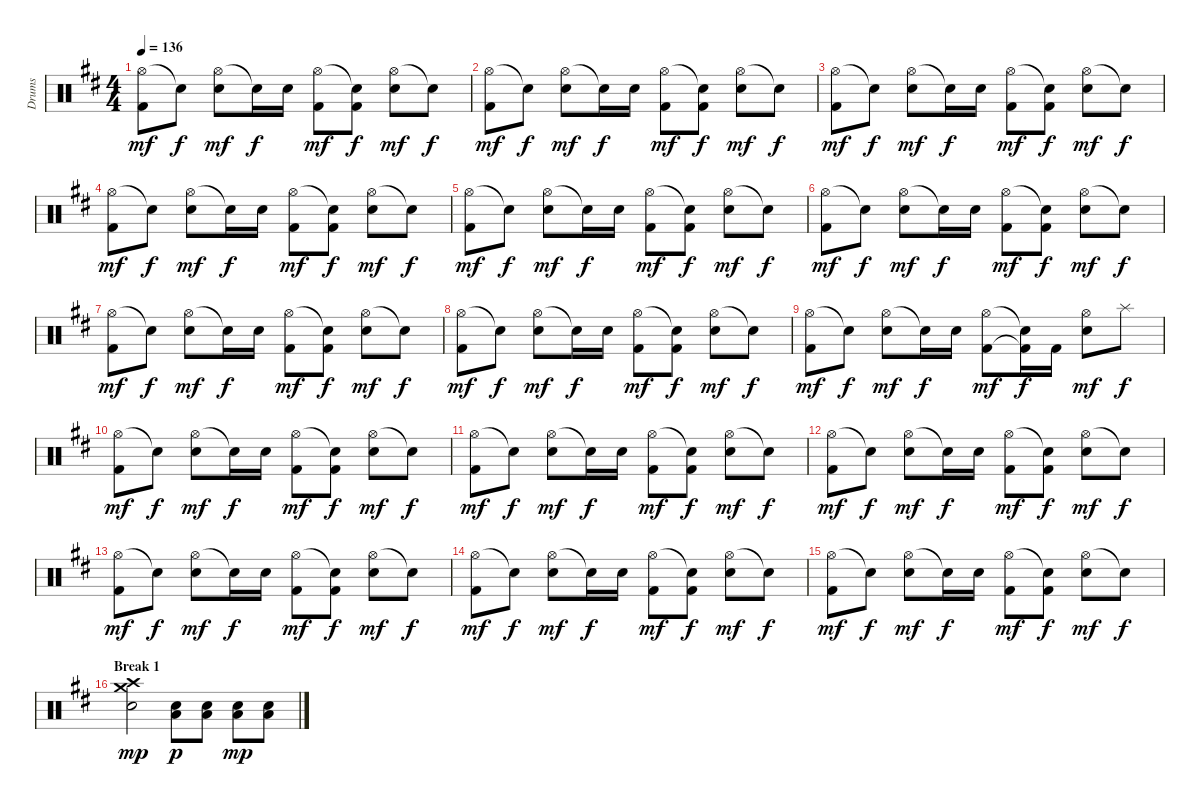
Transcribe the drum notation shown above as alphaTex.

\track ("Drums" "Drums") {instrument percussion}
\staff {score}
\articulation defaults
\ts (4 4)
\tempo 136
\clef neutral
\ks d
("Hi-Hat (open)" "Kick (hit) 2").8{dy mf} "Snare (hit)"{t}.8{dy f} ("Hi-Hat (open)" "Electric Snare (hit)").8{dy mf} "Snare (hit)"{t}.16{dy f} "Electric Snare (hit)".16 ("Hi-Hat (open)" "Kick (hit) 2").8{dy mf} ("Snare (hit)"{t} "Kick (hit) 2").8{dy f} ("Hi-Hat (open)" "Electric Snare (hit)").8{dy mf} "Snare (hit)"{t}.8{dy f} |
("Hi-Hat (open)" "Kick (hit) 2").8{dy mf} "Snare (hit)"{t}.8{dy f} ("Hi-Hat (open)" "Electric Snare (hit)").8{dy mf} "Snare (hit)"{t}.16{dy f} "Electric Snare (hit)".16 ("Hi-Hat (open)" "Kick (hit) 2").8{dy mf} ("Snare (hit)"{t} "Kick (hit) 2").8{dy f} ("Hi-Hat (open)" "Electric Snare (hit)").8{dy mf} "Snare (hit)"{t}.8{dy f} |
("Hi-Hat (open)" "Kick (hit) 2").8{dy mf} "Snare (hit)"{t}.8{dy f} ("Hi-Hat (open)" "Electric Snare (hit)").8{dy mf} "Snare (hit)"{t}.16{dy f} "Electric Snare (hit)".16 ("Hi-Hat (open)" "Kick (hit) 2").8{dy mf} ("Snare (hit)"{t} "Kick (hit) 2").8{dy f} ("Hi-Hat (open)" "Electric Snare (hit)").8{dy mf} "Snare (hit)"{t}.8{dy f} |
("Hi-Hat (open)" "Kick (hit) 2").8{dy mf} "Snare (hit)"{t}.8{dy f} ("Hi-Hat (open)" "Electric Snare (hit)").8{dy mf} "Snare (hit)"{t}.16{dy f} "Electric Snare (hit)".16 ("Hi-Hat (open)" "Kick (hit) 2").8{dy mf} ("Snare (hit)"{t} "Kick (hit) 2").8{dy f} ("Hi-Hat (open)" "Electric Snare (hit)").8{dy mf} "Snare (hit)"{t}.8{dy f} |
("Hi-Hat (open)" "Kick (hit) 2").8{dy mf} "Snare (hit)"{t}.8{dy f} ("Hi-Hat (open)" "Electric Snare (hit)").8{dy mf} "Snare (hit)"{t}.16{dy f} "Electric Snare (hit)".16 ("Hi-Hat (open)" "Kick (hit) 2").8{dy mf} ("Snare (hit)"{t} "Kick (hit) 2").8{dy f} ("Hi-Hat (open)" "Electric Snare (hit)").8{dy mf} "Snare (hit)"{t}.8{dy f} |
("Hi-Hat (open)" "Kick (hit) 2").8{dy mf} "Snare (hit)"{t}.8{dy f} ("Hi-Hat (open)" "Electric Snare (hit)").8{dy mf} "Snare (hit)"{t}.16{dy f} "Electric Snare (hit)".16 ("Hi-Hat (open)" "Kick (hit) 2").8{dy mf} ("Snare (hit)"{t} "Kick (hit) 2").8{dy f} ("Hi-Hat (open)" "Electric Snare (hit)").8{dy mf} "Snare (hit)"{t}.8{dy f} |
("Hi-Hat (open)" "Kick (hit) 2").8{dy mf} "Snare (hit)"{t}.8{dy f} ("Hi-Hat (open)" "Electric Snare (hit)").8{dy mf} "Snare (hit)"{t}.16{dy f} "Electric Snare (hit)".16 ("Hi-Hat (open)" "Kick (hit) 2").8{dy mf} ("Snare (hit)"{t} "Kick (hit) 2").8{dy f} ("Hi-Hat (open)" "Electric Snare (hit)").8{dy mf} "Snare (hit)"{t}.8{dy f} |
("Hi-Hat (open)" "Kick (hit) 2").8{dy mf} "Snare (hit)"{t}.8{dy f} ("Hi-Hat (open)" "Electric Snare (hit)").8{dy mf} "Snare (hit)"{t}.16{dy f} "Electric Snare (hit)".16 ("Hi-Hat (open)" "Kick (hit) 2").8{dy mf} ("Snare (hit)"{t} "Kick (hit) 2").8{dy f} ("Hi-Hat (open)" "Electric Snare (hit)").8{dy mf} "Snare (hit)"{t}.8{dy f} |
("Hi-Hat (open)" "Kick (hit) 2").8{dy mf} "Snare (hit)"{t}.8{dy f} ("Hi-Hat (open)" "Electric Snare (hit)").8{dy mf} "Snare (hit)"{t}.16{dy f} "Electric Snare (hit)".16 ("Hi-Hat (open)" "Kick (hit) 2").8{dy mf} ("Snare (hit)"{t} "Kick (hit) 2"{t}).16{dy f} "Kick (hit) 2".16 ("Hi-Hat (open)" "Electric Snare (hit)").8{dy mf} "Splash (hit)".8{dy f} |
("Hi-Hat (open)" "Kick (hit) 2").8{dy mf} "Snare (hit)"{t}.8{dy f} ("Hi-Hat (open)" "Electric Snare (hit)").8{dy mf} "Snare (hit)"{t}.16{dy f} "Electric Snare (hit)".16 ("Hi-Hat (open)" "Kick (hit) 2").8{dy mf} ("Snare (hit)"{t} "Kick (hit) 2").8{dy f} ("Hi-Hat (open)" "Electric Snare (hit)").8{dy mf} "Snare (hit)"{t}.8{dy f} |
("Hi-Hat (open)" "Kick (hit) 2").8{dy mf} "Snare (hit)"{t}.8{dy f} ("Hi-Hat (open)" "Electric Snare (hit)").8{dy mf} "Snare (hit)"{t}.16{dy f} "Electric Snare (hit)".16 ("Hi-Hat (open)" "Kick (hit) 2").8{dy mf} ("Snare (hit)"{t} "Kick (hit) 2").8{dy f} ("Hi-Hat (open)" "Electric Snare (hit)").8{dy mf} "Snare (hit)"{t}.8{dy f} |
("Hi-Hat (open)" "Kick (hit) 2").8{dy mf} "Snare (hit)"{t}.8{dy f} ("Hi-Hat (open)" "Electric Snare (hit)").8{dy mf} "Snare (hit)"{t}.16{dy f} "Electric Snare (hit)".16 ("Hi-Hat (open)" "Kick (hit) 2").8{dy mf} ("Snare (hit)"{t} "Kick (hit) 2").8{dy f} ("Hi-Hat (open)" "Electric Snare (hit)").8{dy mf} "Snare (hit)"{t}.8{dy f} |
("Hi-Hat (open)" "Kick (hit) 2").8{dy mf} "Snare (hit)"{t}.8{dy f} ("Hi-Hat (open)" "Electric Snare (hit)").8{dy mf} "Snare (hit)"{t}.16{dy f} "Electric Snare (hit)".16 ("Hi-Hat (open)" "Kick (hit) 2").8{dy mf} ("Snare (hit)"{t} "Kick (hit) 2").8{dy f} ("Hi-Hat (open)" "Electric Snare (hit)").8{dy mf} "Snare (hit)"{t}.8{dy f} |
("Hi-Hat (open)" "Kick (hit) 2").8{dy mf} "Snare (hit)"{t}.8{dy f} ("Hi-Hat (open)" "Electric Snare (hit)").8{dy mf} "Snare (hit)"{t}.16{dy f} "Electric Snare (hit)".16 ("Hi-Hat (open)" "Kick (hit) 2").8{dy mf} ("Snare (hit)"{t} "Kick (hit) 2").8{dy f} ("Hi-Hat (open)" "Electric Snare (hit)").8{dy mf} "Snare (hit)"{t}.8{dy f} |
("Hi-Hat (open)" "Kick (hit) 2").8{dy mf} "Snare (hit)"{t}.8{dy f} ("Hi-Hat (open)" "Electric Snare (hit)").8{dy mf} "Snare (hit)"{t}.16{dy f} "Electric Snare (hit)".16 ("Hi-Hat (open)" "Kick (hit) 2").8{dy mf} ("Snare (hit)"{t} "Kick (hit) 2").8{dy f} ("Hi-Hat (open)" "Electric Snare (hit)").8{dy mf} "Snare (hit)"{t}.8{dy f} |
\section ("" "Break 1")
("Crash medium (hit)" "Crash high (hit)" "Electric Snare (hit)").2{dy mp} ("Low Tom (hit)" "Electric Snare (hit)").8{dy p} ("Low Tom (hit)" "Electric Snare (hit)").8 ("Low Tom (hit)" "Electric Snare (hit)").8{dy mp} ("Low Tom (hit)" "Electric Snare (hit)").8
